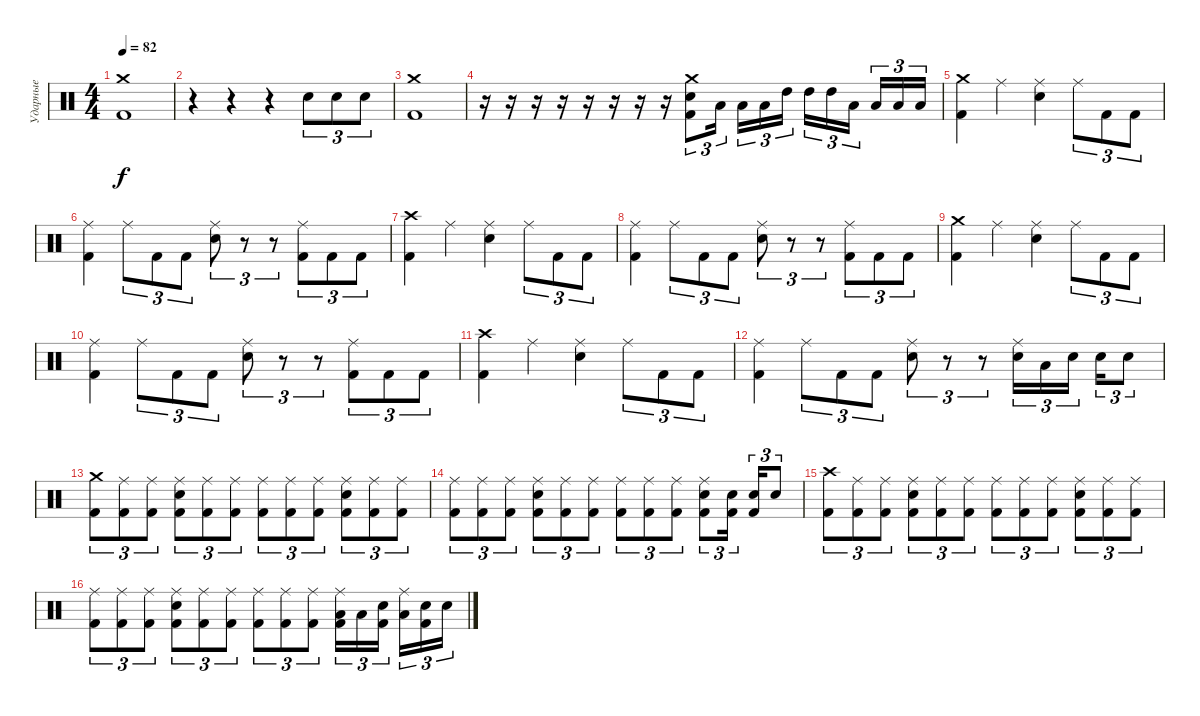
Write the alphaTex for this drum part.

\track ("Ударные" "Ударные") {instrument percussion}
\staff {score}
\articulation defaults
\ts (4 4)
\tempo 82
\clef neutral
\ks c
("Crash medium (hit)" "Kick (hit) 2").1{dy f} |
r.4 r.4 r.4 "Electric Snare (hit)".8{tu (3 2)} "Electric Snare (hit)".8{tu (3 2)} "Electric Snare (hit)".8{tu (3 2)} |
("Crash medium (hit)" "Kick (hit) 2").1 |
r.16 r.16 r.16 r.16 r.16 r.16 r.16 r.16 ("Crash medium (hit)" "Electric Snare (hit)" "Kick (hit) 2").8{tu (3 2)} "Low Tom (hit)".16{tu (3 2)} "Low Tom (hit)".16{tu (3 2)} "Low Tom (hit)".16{tu (3 2)} "High Tom (hit)".16{tu (3 2)} "High Tom (hit)".16{tu (3 2)} "High Tom (hit)".16{tu (3 2)} "Low Tom (hit)".16{tu (3 2)} "Low Tom (hit)".16{tu (3 2)} "Low Tom (hit)".16{tu (3 2)} "Low Tom (hit)".16{tu (3 2)} |
("Crash medium (hit)" "Kick (hit) 2").4 "Ride (middle)".4 ("Ride (middle)" "Electric Snare (hit)").4 "Ride (middle)".8{tu (3 2)} "Kick (hit) 2".8{tu (3 2)} "Kick (hit) 2".8{tu (3 2)} |
("Ride (middle)" "Kick (hit) 2").4 "Ride (middle)".8{tu (3 2)} "Kick (hit) 2".8{tu (3 2)} "Kick (hit) 2".8{tu (3 2)} ("Ride (middle)" "Electric Snare (hit)").8{tu (3 2)} r.8{tu (3 2)} r.8{tu (3 2)} ("Ride (middle)" "Kick (hit) 2").8{tu (3 2)} "Kick (hit) 2".8{tu (3 2)} "Kick (hit) 2".8{tu (3 2)} |
("Crash high (hit)" "Kick (hit) 2").4 "Ride (middle)".4 ("Ride (middle)" "Electric Snare (hit)").4 "Ride (middle)".8{tu (3 2)} "Kick (hit) 2".8{tu (3 2)} "Kick (hit) 2".8{tu (3 2)} |
("Ride (middle)" "Kick (hit) 2").4 "Ride (middle)".8{tu (3 2)} "Kick (hit) 2".8{tu (3 2)} "Kick (hit) 2".8{tu (3 2)} ("Ride (middle)" "Electric Snare (hit)").8{tu (3 2)} r.8{tu (3 2)} r.8{tu (3 2)} ("Ride (middle)" "Kick (hit) 2").8{tu (3 2)} "Kick (hit) 2".8{tu (3 2)} "Kick (hit) 2".8{tu (3 2)} |
("Crash medium (hit)" "Kick (hit) 2").4 "Ride (middle)".4 ("Ride (middle)" "Electric Snare (hit)").4 "Ride (middle)".8{tu (3 2)} "Kick (hit) 2".8{tu (3 2)} "Kick (hit) 2".8{tu (3 2)} |
("Ride (middle)" "Kick (hit) 2").4 "Ride (middle)".8{tu (3 2)} "Kick (hit) 2".8{tu (3 2)} "Kick (hit) 2".8{tu (3 2)} ("Ride (middle)" "Electric Snare (hit)").8{tu (3 2)} r.8{tu (3 2)} r.8{tu (3 2)} ("Ride (middle)" "Kick (hit) 2").8{tu (3 2)} "Kick (hit) 2".8{tu (3 2)} "Kick (hit) 2".8{tu (3 2)} |
("Crash high (hit)" "Kick (hit) 2").4 "Ride (middle)".4 ("Ride (middle)" "Electric Snare (hit)").4 "Ride (middle)".8{tu (3 2)} "Kick (hit) 2".8{tu (3 2)} "Kick (hit) 2".8{tu (3 2)} |
("Ride (middle)" "Kick (hit) 2").4 "Ride (middle)".8{tu (3 2)} "Kick (hit) 2".8{tu (3 2)} "Kick (hit) 2".8{tu (3 2)} ("Ride (middle)" "Electric Snare (hit)").8{tu (3 2)} r.8{tu (3 2)} r.8{tu (3 2)} ("Ride (middle)" "Electric Snare (hit)").16{tu (3 2)} "Low Tom (hit)".16{tu (3 2)} "Electric Snare (hit)".16{tu (3 2)} "Electric Snare (hit)".16{tu (3 2)} "Electric Snare (hit)".8{tu (3 2)} |
("Crash medium (hit)" "Kick (hit) 2").8{tu (3 2)} ("Ride (middle)" "Kick (hit) 2").8{tu (3 2)} ("Ride (middle)" "Kick (hit) 2").8{tu (3 2)} ("Ride (middle)" "Electric Snare (hit)" "Kick (hit) 2").8{tu (3 2)} ("Ride (middle)" "Kick (hit) 2").8{tu (3 2)} ("Ride (middle)" "Kick (hit) 2").8{tu (3 2)} ("Ride (middle)" "Kick (hit) 2").8{tu (3 2)} ("Ride (middle)" "Kick (hit) 2").8{tu (3 2)} ("Ride (middle)" "Kick (hit) 2").8{tu (3 2)} ("Ride (middle)" "Electric Snare (hit)" "Kick (hit) 2").8{tu (3 2)} ("Ride (middle)" "Kick (hit) 2").8{tu (3 2)} ("Ride (middle)" "Kick (hit) 2").8{tu (3 2)} |
("Ride (middle)" "Kick (hit) 2").8{tu (3 2)} ("Ride (middle)" "Kick (hit) 2").8{tu (3 2)} ("Ride (middle)" "Kick (hit) 2").8{tu (3 2)} ("Ride (middle)" "Electric Snare (hit)" "Kick (hit) 2").8{tu (3 2)} ("Ride (middle)" "Kick (hit) 2").8{tu (3 2)} ("Ride (middle)" "Kick (hit) 2").8{tu (3 2)} ("Ride (middle)" "Kick (hit) 2").8{tu (3 2)} ("Ride (middle)" "Kick (hit) 2").8{tu (3 2)} ("Ride (middle)" "Kick (hit) 2").8{tu (3 2)} ("Ride (middle)" "Electric Snare (hit)" "Kick (hit) 2").8{tu (3 2)} ("Electric Snare (hit)" "Kick (hit) 2").16{tu (3 2)} ("Electric Snare (hit)" "Kick (hit) 2").16{tu (3 2)} "Electric Snare (hit)".8{tu (3 2)} |
("Crash high (hit)" "Kick (hit) 2").8{tu (3 2)} ("Ride (middle)" "Kick (hit) 2").8{tu (3 2)} ("Ride (middle)" "Kick (hit) 2").8{tu (3 2)} ("Ride (middle)" "Electric Snare (hit)" "Kick (hit) 2").8{tu (3 2)} ("Ride (middle)" "Kick (hit) 2").8{tu (3 2)} ("Ride (middle)" "Kick (hit) 2").8{tu (3 2)} ("Ride (middle)" "Kick (hit) 2").8{tu (3 2)} ("Ride (middle)" "Kick (hit) 2").8{tu (3 2)} ("Ride (middle)" "Kick (hit) 2").8{tu (3 2)} ("Ride (middle)" "Electric Snare (hit)" "Kick (hit) 2").8{tu (3 2)} ("Ride (middle)" "Kick (hit) 2").8{tu (3 2)} ("Ride (middle)" "Kick (hit) 2").8{tu (3 2)} |
("Ride (middle)" "Kick (hit) 2").8{tu (3 2)} ("Ride (middle)" "Kick (hit) 2").8{tu (3 2)} ("Ride (middle)" "Kick (hit) 2").8{tu (3 2)} ("Ride (middle)" "Electric Snare (hit)" "Kick (hit) 2").8{tu (3 2)} ("Ride (middle)" "Kick (hit) 2").8{tu (3 2)} ("Ride (middle)" "Kick (hit) 2").8{tu (3 2)} ("Ride (middle)" "Kick (hit) 2").8{tu (3 2)} ("Ride (middle)" "Kick (hit) 2").8{tu (3 2)} ("Ride (middle)" "Kick (hit) 2").8{tu (3 2)} ("Ride (middle)" "Low Tom (hit)" "Kick (hit) 2").16{tu (3 2)} "Low Tom (hit)".16{tu (3 2)} ("Electric Snare (hit)" "Kick (hit) 2").16{tu (3 2)} ("Ride (middle)" "Low Tom (hit)").16{tu (3 2)} ("Electric Snare (hit)" "Kick (hit) 2").16{tu (3 2)} "Electric Snare (hit)".16{tu (3 2)}
